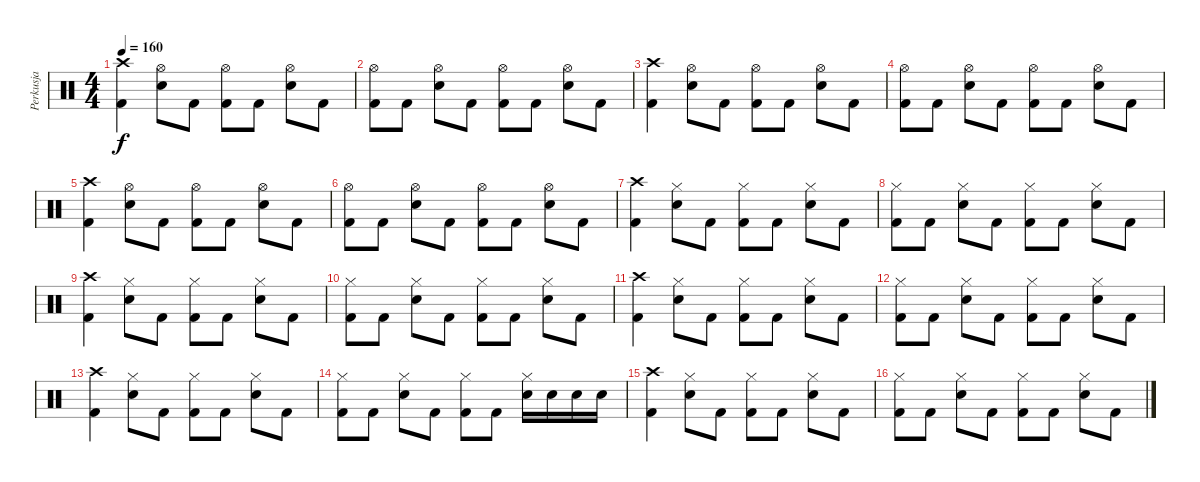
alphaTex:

\track ("Perkusja" "Perkusja") {instrument percussion}
\staff {score}
\articulation defaults
\ts (4 4)
\tempo 160
\clef neutral
\ks c
("Crash high (hit)" "Kick (hit) 2").4{dy f} ("Hi-Hat (open)" "Electric Snare (hit)").8 "Kick (hit) 2".8 ("Hi-Hat (open)" "Kick (hit) 2").8 "Kick (hit) 2".8 ("Hi-Hat (open)" "Electric Snare (hit)").8 "Kick (hit) 2".8 |
("Hi-Hat (open)" "Kick (hit) 2").8 "Kick (hit) 2".8 ("Hi-Hat (open)" "Electric Snare (hit)").8 "Kick (hit) 2".8 ("Hi-Hat (open)" "Kick (hit) 2").8 "Kick (hit) 2".8 ("Hi-Hat (open)" "Electric Snare (hit)").8 "Kick (hit) 2".8 |
("Crash high (hit)" "Kick (hit) 2").4 ("Hi-Hat (open)" "Electric Snare (hit)").8 "Kick (hit) 2".8 ("Hi-Hat (open)" "Kick (hit) 2").8 "Kick (hit) 2".8 ("Hi-Hat (open)" "Electric Snare (hit)").8 "Kick (hit) 2".8 |
("Hi-Hat (open)" "Kick (hit) 2").8 "Kick (hit) 2".8 ("Hi-Hat (open)" "Electric Snare (hit)").8 "Kick (hit) 2".8 ("Hi-Hat (open)" "Kick (hit) 2").8 "Kick (hit) 2".8 ("Hi-Hat (open)" "Electric Snare (hit)").8 "Kick (hit) 2".8 |
("Crash high (hit)" "Kick (hit) 2").4 ("Hi-Hat (open)" "Electric Snare (hit)").8 "Kick (hit) 2".8 ("Hi-Hat (open)" "Kick (hit) 2").8 "Kick (hit) 2".8 ("Hi-Hat (open)" "Electric Snare (hit)").8 "Kick (hit) 2".8 |
("Hi-Hat (open)" "Kick (hit) 2").8 "Kick (hit) 2".8 ("Hi-Hat (open)" "Electric Snare (hit)").8 "Kick (hit) 2".8 ("Hi-Hat (open)" "Kick (hit) 2").8 "Kick (hit) 2".8 ("Hi-Hat (open)" "Electric Snare (hit)").8 "Kick (hit) 2".8 |
("Crash high (hit)" "Kick (hit) 2").4 ("Hi-Hat (closed)" "Electric Snare (hit)").8 "Kick (hit) 2".8 ("Hi-Hat (closed)" "Kick (hit) 2").8 "Kick (hit) 2".8 ("Hi-Hat (closed)" "Electric Snare (hit)").8 "Kick (hit) 2".8 |
("Hi-Hat (closed)" "Kick (hit) 2").8 "Kick (hit) 2".8 ("Hi-Hat (closed)" "Electric Snare (hit)").8 "Kick (hit) 2".8 ("Hi-Hat (closed)" "Kick (hit) 2").8 "Kick (hit) 2".8 ("Hi-Hat (closed)" "Electric Snare (hit)").8 "Kick (hit) 2".8 |
("Crash high (hit)" "Kick (hit) 2").4 ("Hi-Hat (closed)" "Electric Snare (hit)").8 "Kick (hit) 2".8 ("Hi-Hat (closed)" "Kick (hit) 2").8 "Kick (hit) 2".8 ("Hi-Hat (closed)" "Electric Snare (hit)").8 "Kick (hit) 2".8 |
("Hi-Hat (closed)" "Kick (hit) 2").8 "Kick (hit) 2".8 ("Hi-Hat (closed)" "Electric Snare (hit)").8 "Kick (hit) 2".8 ("Hi-Hat (closed)" "Kick (hit) 2").8 "Kick (hit) 2".8 ("Hi-Hat (closed)" "Electric Snare (hit)").8 "Kick (hit) 2".8 |
("Crash high (hit)" "Kick (hit) 2").4 ("Hi-Hat (closed)" "Electric Snare (hit)").8 "Kick (hit) 2".8 ("Hi-Hat (closed)" "Kick (hit) 2").8 "Kick (hit) 2".8 ("Hi-Hat (closed)" "Electric Snare (hit)").8 "Kick (hit) 2".8 |
("Hi-Hat (closed)" "Kick (hit) 2").8 "Kick (hit) 2".8 ("Hi-Hat (closed)" "Electric Snare (hit)").8 "Kick (hit) 2".8 ("Hi-Hat (closed)" "Kick (hit) 2").8 "Kick (hit) 2".8 ("Hi-Hat (closed)" "Electric Snare (hit)").8 "Kick (hit) 2".8 |
("Crash high (hit)" "Kick (hit) 2").4 ("Hi-Hat (closed)" "Electric Snare (hit)").8 "Kick (hit) 2".8 ("Hi-Hat (closed)" "Kick (hit) 2").8 "Kick (hit) 2".8 ("Hi-Hat (closed)" "Electric Snare (hit)").8 "Kick (hit) 2".8 |
("Hi-Hat (closed)" "Kick (hit) 2").8 "Kick (hit) 2".8 ("Hi-Hat (closed)" "Electric Snare (hit)").8 "Kick (hit) 2".8 ("Hi-Hat (closed)" "Kick (hit) 2").8 "Kick (hit) 2".8 ("Hi-Hat (closed)" "Electric Snare (hit)").16 "Electric Snare (hit)".16 "Electric Snare (hit)".16 "Electric Snare (hit)".16 |
("Crash high (hit)" "Kick (hit) 2").4 ("Hi-Hat (closed)" "Electric Snare (hit)").8 "Kick (hit) 2".8 ("Hi-Hat (closed)" "Kick (hit) 2").8 "Kick (hit) 2".8 ("Hi-Hat (closed)" "Electric Snare (hit)").8 "Kick (hit) 2".8 |
("Hi-Hat (closed)" "Kick (hit) 2").8 "Kick (hit) 2".8 ("Hi-Hat (closed)" "Electric Snare (hit)").8 "Kick (hit) 2".8 ("Hi-Hat (closed)" "Kick (hit) 2").8 "Kick (hit) 2".8 ("Hi-Hat (closed)" "Electric Snare (hit)").8 "Kick (hit) 2".8
